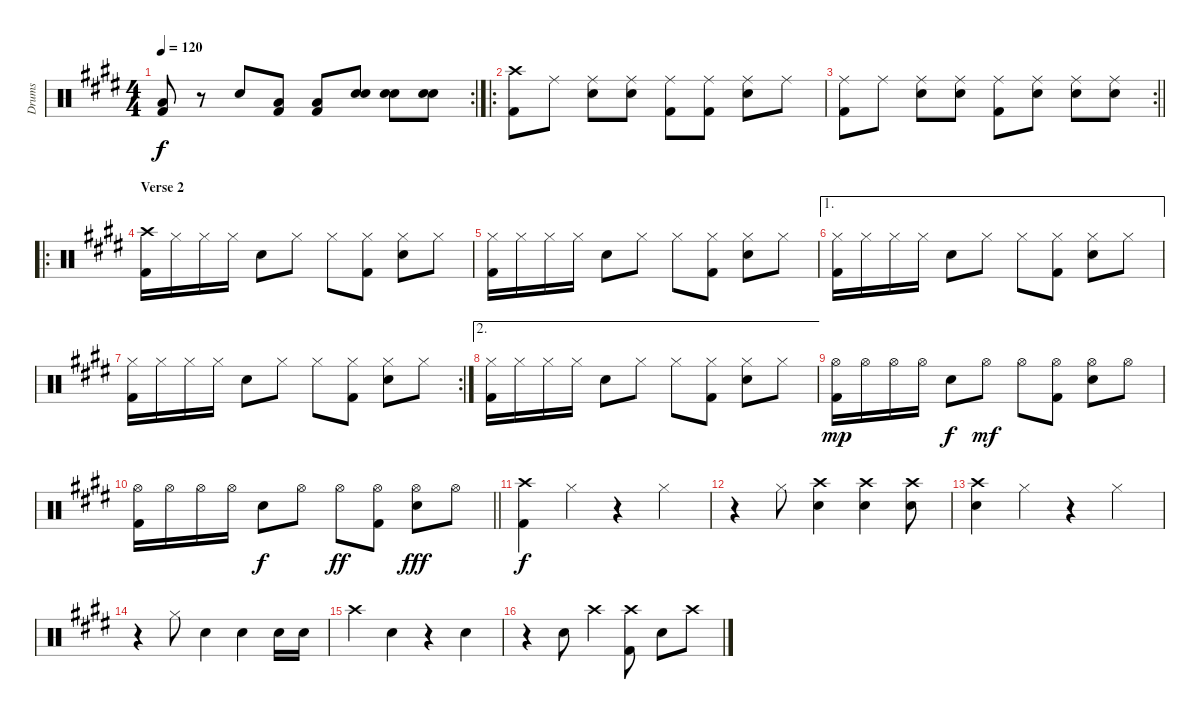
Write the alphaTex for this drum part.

\track ("Drums" "Drums") {instrument percussion}
\staff {score}
\articulation defaults
\rc 2
\ts (4 4)
\tempo 120
\clef neutral
\ks e
("Low Tom (hit)" "Kick (hit) 2").8{dy f} r.8 "Electric Snare (hit)".8 ("Low Tom (hit)" "Kick (hit) 2").8 ("Low Tom (hit)" "Kick (hit) 2").8 ("Electric Snare (hit)" "Electric Snare (hit)").8 ("Electric Snare (hit)" "Electric Snare (hit)").8 ("Electric Snare (hit)" "Electric Snare (hit)").8 |
\ro
("Crash high (hit)" "Kick (hit) 2").8 "Ride (middle)".8 ("Ride (middle)" "Electric Snare (hit)").8 ("Ride (middle)" "Electric Snare (hit)").8 ("Ride (middle)" "Kick (hit) 2").8 ("Ride (middle)" "Kick (hit) 2").8 ("Ride (middle)" "Electric Snare (hit)").8 "Ride (middle)".8 |
\rc 2
\barLineRight lightlight
("Ride (middle)" "Kick (hit) 2").8 "Ride (middle)".8 ("Ride (middle)" "Electric Snare (hit)").8 ("Ride (middle)" "Electric Snare (hit)").8 ("Ride (middle)" "Kick (hit) 2").8 ("Ride (middle)" "Electric Snare (hit)").8 ("Ride (middle)" "Electric Snare (hit)").8 ("Ride (middle)" "Electric Snare (hit)").8 |
\ro
\section ("" "Verse 2")
("Crash high (hit)" "Kick (hit) 2").16 "Hi-Hat (closed)".16 "Hi-Hat (closed)".16 "Hi-Hat (closed)".16 "Electric Snare (hit)".8 "Hi-Hat (closed)".8 "Hi-Hat (closed)".8 ("Hi-Hat (closed)" "Kick (hit) 2").8 ("Hi-Hat (closed)" "Electric Snare (hit)").8 "Hi-Hat (closed)".8 |
("Hi-Hat (closed)" "Kick (hit) 2").16 "Hi-Hat (closed)".16 "Hi-Hat (closed)".16 "Hi-Hat (closed)".16 "Electric Snare (hit)".8 "Hi-Hat (closed)".8 "Hi-Hat (closed)".8 ("Hi-Hat (closed)" "Kick (hit) 2").8 ("Hi-Hat (closed)" "Electric Snare (hit)").8 "Hi-Hat (closed)".8 |
\ae 1
("Hi-Hat (closed)" "Kick (hit) 2").16 "Hi-Hat (closed)".16 "Hi-Hat (closed)".16 "Hi-Hat (closed)".16 "Electric Snare (hit)".8 "Hi-Hat (closed)".8 "Hi-Hat (closed)".8 ("Hi-Hat (closed)" "Kick (hit) 2").8 ("Hi-Hat (closed)" "Electric Snare (hit)").8 "Hi-Hat (closed)".8 |
\rc 2
("Hi-Hat (closed)" "Kick (hit) 2").16 "Hi-Hat (closed)".16 "Hi-Hat (closed)".16 "Hi-Hat (closed)".16 "Electric Snare (hit)".8 "Hi-Hat (closed)".8 "Hi-Hat (closed)".8 ("Hi-Hat (closed)" "Kick (hit) 2").8 ("Hi-Hat (closed)" "Electric Snare (hit)").8 "Hi-Hat (closed)".8 |
\ae 2
("Hi-Hat (closed)" "Kick (hit) 2").16 "Hi-Hat (closed)".16 "Hi-Hat (closed)".16 "Hi-Hat (closed)".16 "Electric Snare (hit)".8 "Hi-Hat (closed)".8 "Hi-Hat (closed)".8 ("Hi-Hat (closed)" "Kick (hit) 2").8 ("Hi-Hat (closed)" "Electric Snare (hit)").8 "Hi-Hat (closed)".8 |
("Hi-Hat (open)" "Kick (hit) 2").16{dy mp} "Hi-Hat (open)".16 "Hi-Hat (open)".16 "Hi-Hat (open)".16 "Electric Snare (hit)".8{dy f} "Hi-Hat (open)".8{dy mf} "Hi-Hat (open)".8 ("Hi-Hat (open)" "Kick (hit) 2").8 ("Hi-Hat (open)" "Electric Snare (hit)").8 "Hi-Hat (open)".8 |
\barLineRight lightlight
("Hi-Hat (open)" "Kick (hit) 2").16 "Hi-Hat (open)".16 "Hi-Hat (open)".16 "Hi-Hat (open)".16 "Electric Snare (hit)".8{dy f} "Hi-Hat (open)".8 "Hi-Hat (open)".8{dy ff} ("Hi-Hat (open)" "Kick (hit) 2").8 ("Hi-Hat (open)" "Electric Snare (hit)").8{dy fff} "Hi-Hat (open)".8 |
("Crash high (hit)" "Kick (hit) 2").4{dy f} "Hi-Hat (closed)".4 r.4 "Hi-Hat (closed)".4 |
r.4 "Hi-Hat (closed)".8 ("Crash high (hit)" "Electric Snare (hit)").4 ("Crash high (hit)" "Electric Snare (hit)").4 ("Crash high (hit)" "Electric Snare (hit)").8 |
\ks c#minor
("Crash high (hit)" "Electric Snare (hit)").4 "Hi-Hat (closed)".4 r.4 "Hi-Hat (closed)".4 |
r.4 "Hi-Hat (closed)".8 "Electric Snare (hit)".4 "Electric Snare (hit)".4 "Electric Snare (hit)".16 "Electric Snare (hit)".16 |
\ks e "Crash high (hit)".4 "Electric Snare (hit)".4
r.4 "Electric Snare (hit)".4 |
r.4 "Electric Snare (hit)".8 "Crash high (hit)".4 ("Crash high (hit)" "Kick (hit) 2").8 "Electric Snare (hit)".8 "Crash high (hit)".8
